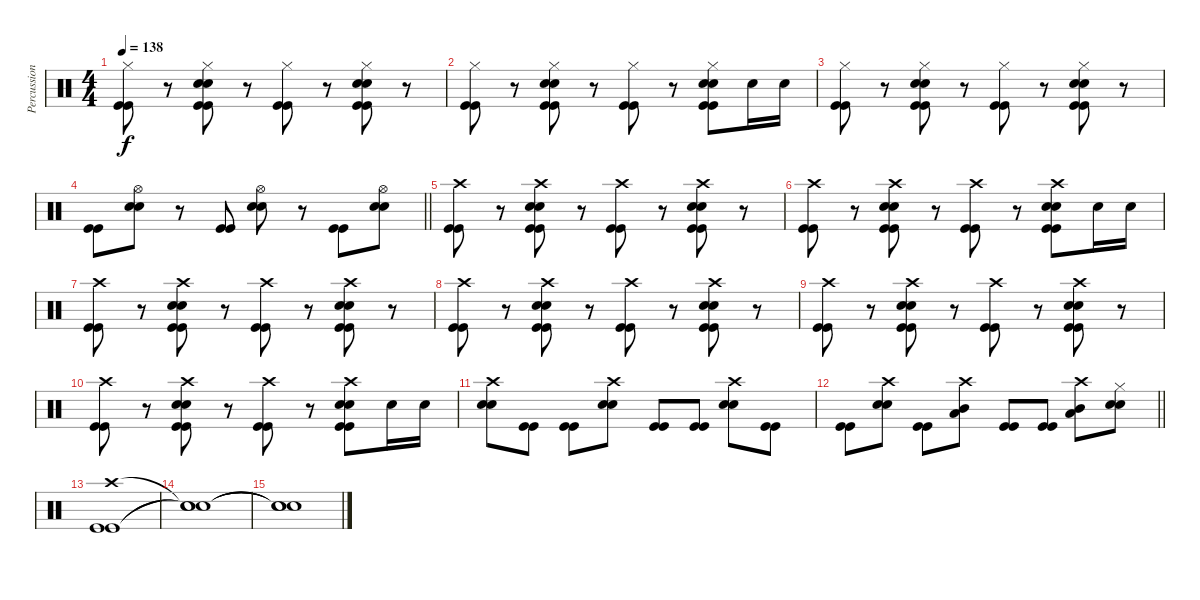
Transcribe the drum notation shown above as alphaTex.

\track ("Percussioni" "Percussion") {instrument percussion}
\staff {score}
\articulation defaults
\ts (4 4)
\tempo 138
\clef neutral
\ks c
("Hi-Hat (closed)" "Kick (hit)" "Kick (hit)").8{dy f} r.8 ("Hi-Hat (closed)" "Snare (hit) 2" "Snare (hit) 2" "Kick (hit)" "Kick (hit)").8 r.8 ("Hi-Hat (closed)" "Kick (hit)" "Kick (hit)").8 r.8 ("Hi-Hat (closed)" "Snare (hit) 2" "Snare (hit) 2" "Kick (hit)" "Kick (hit)").8 r.8 |
("Hi-Hat (closed)" "Kick (hit)" "Kick (hit)").8 r.8 ("Hi-Hat (closed)" "Snare (hit) 2" "Snare (hit) 2" "Kick (hit)" "Kick (hit)").8 r.8 ("Hi-Hat (closed)" "Kick (hit)" "Kick (hit)").8 r.8 ("Hi-Hat (closed)" "Snare (hit) 2" "Snare (hit) 2" "Kick (hit)" "Kick (hit)").8 "Snare (hit) 2".16 "Snare (hit) 2".16 |
("Hi-Hat (closed)" "Kick (hit)" "Kick (hit)").8 r.8 ("Hi-Hat (closed)" "Snare (hit) 2" "Snare (hit) 2" "Kick (hit)" "Kick (hit)").8 r.8 ("Hi-Hat (closed)" "Kick (hit)" "Kick (hit)").8 r.8 ("Hi-Hat (closed)" "Snare (hit) 2" "Snare (hit) 2" "Kick (hit)" "Kick (hit)").8 r.8 |
\barLineRight lightlight
("Kick (hit)" "Kick (hit)").8 ("Hi-Hat (open)" "Snare (hit) 2" "Snare (hit) 2").8 r.8 ("Kick (hit)" "Kick (hit)").8 ("Hi-Hat (open)" "Snare (hit) 2" "Snare (hit) 2").8 r.8 ("Kick (hit)" "Kick (hit)").8 ("Hi-Hat (open)" "Snare (hit) 2" "Snare (hit) 2").8 |
("Crash high (hit)" "Kick (hit)" "Kick (hit)").8 r.8 ("Crash high (hit)" "Snare (hit) 2" "Snare (hit) 2" "Kick (hit)" "Kick (hit)").8 r.8 ("Crash high (hit)" "Kick (hit)" "Kick (hit)").8 r.8 ("Crash high (hit)" "Snare (hit) 2" "Snare (hit) 2" "Kick (hit)" "Kick (hit)").8 r.8 |
("Crash high (hit)" "Kick (hit)" "Kick (hit)").8 r.8 ("Crash high (hit)" "Snare (hit) 2" "Snare (hit) 2" "Kick (hit)" "Kick (hit)").8 r.8 ("Crash high (hit)" "Kick (hit)" "Kick (hit)").8 r.8 ("Crash high (hit)" "Snare (hit) 2" "Snare (hit) 2" "Kick (hit)" "Kick (hit)").8 "Snare (hit) 2".16 "Snare (hit) 2".16 |
("Crash high (hit)" "Kick (hit)" "Kick (hit)").8 r.8 ("Crash high (hit)" "Snare (hit) 2" "Snare (hit) 2" "Kick (hit)" "Kick (hit)").8 r.8 ("Crash high (hit)" "Kick (hit)" "Kick (hit)").8 r.8 ("Crash high (hit)" "Snare (hit) 2" "Snare (hit) 2" "Kick (hit)" "Kick (hit)").8 r.8 |
("Crash high (hit)" "Kick (hit)" "Kick (hit)").8 r.8 ("Crash high (hit)" "Snare (hit) 2" "Snare (hit) 2" "Kick (hit)" "Kick (hit)").8 r.8 ("Crash high (hit)" "Kick (hit)" "Kick (hit)").8 r.8 ("Crash high (hit)" "Snare (hit) 2" "Snare (hit) 2" "Kick (hit)" "Kick (hit)").8 r.8 |
("Crash high (hit)" "Kick (hit)" "Kick (hit)").8 r.8 ("Crash high (hit)" "Snare (hit) 2" "Snare (hit) 2" "Kick (hit)" "Kick (hit)").8 r.8 ("Crash high (hit)" "Kick (hit)" "Kick (hit)").8 r.8 ("Crash high (hit)" "Snare (hit) 2" "Snare (hit) 2" "Kick (hit)" "Kick (hit)").8 r.8 |
("Crash high (hit)" "Kick (hit)" "Kick (hit)").8 r.8 ("Crash high (hit)" "Snare (hit) 2" "Snare (hit) 2" "Kick (hit)" "Kick (hit)").8 r.8 ("Crash high (hit)" "Kick (hit)" "Kick (hit)").8 r.8 ("Crash high (hit)" "Snare (hit) 2" "Snare (hit) 2" "Kick (hit)" "Kick (hit)").8 "Snare (hit) 2".16 "Snare (hit) 2".16 |
("Crash high (hit)" "Snare (hit) 2" "Snare (hit) 2").8 ("Kick (hit)" "Kick (hit)").8 ("Kick (hit)" "Kick (hit)").8 ("Crash high (hit)" "Snare (hit) 2" "Snare (hit) 2").8 ("Kick (hit)" "Kick (hit)").8 ("Kick (hit)" "Kick (hit)").8 ("Crash high (hit)" "Snare (hit) 2" "Snare (hit) 2").8 ("Kick (hit)" "Kick (hit)").8 |
\barLineRight lightlight
("Kick (hit)" "Kick (hit)").8 ("Crash high (hit)" "Snare (hit) 2" "Snare (hit) 2").8 ("Kick (hit)" "Kick (hit)").8 ("Crash high (hit)" "Mid Tom (hit)" "Low Tom (hit)").8 ("Kick (hit)" "Kick (hit)").8 ("Kick (hit)" "Kick (hit)").8 ("Crash high (hit)" "Mid Tom (hit)" "Low Tom (hit)").8 ("Hi-Hat (closed)" "Snare (hit) 2" "Snare (hit) 2").8 |
("Kick (hit)" "Crash high (hit)" "Kick (hit)").1 |
("Snare (hit)"{t} "Snare (hit)"{t} "Snare (hit)"{t}).1 |
("Snare (hit)"{t} "Snare (hit)"{t} "Snare (hit)"{t}).1
